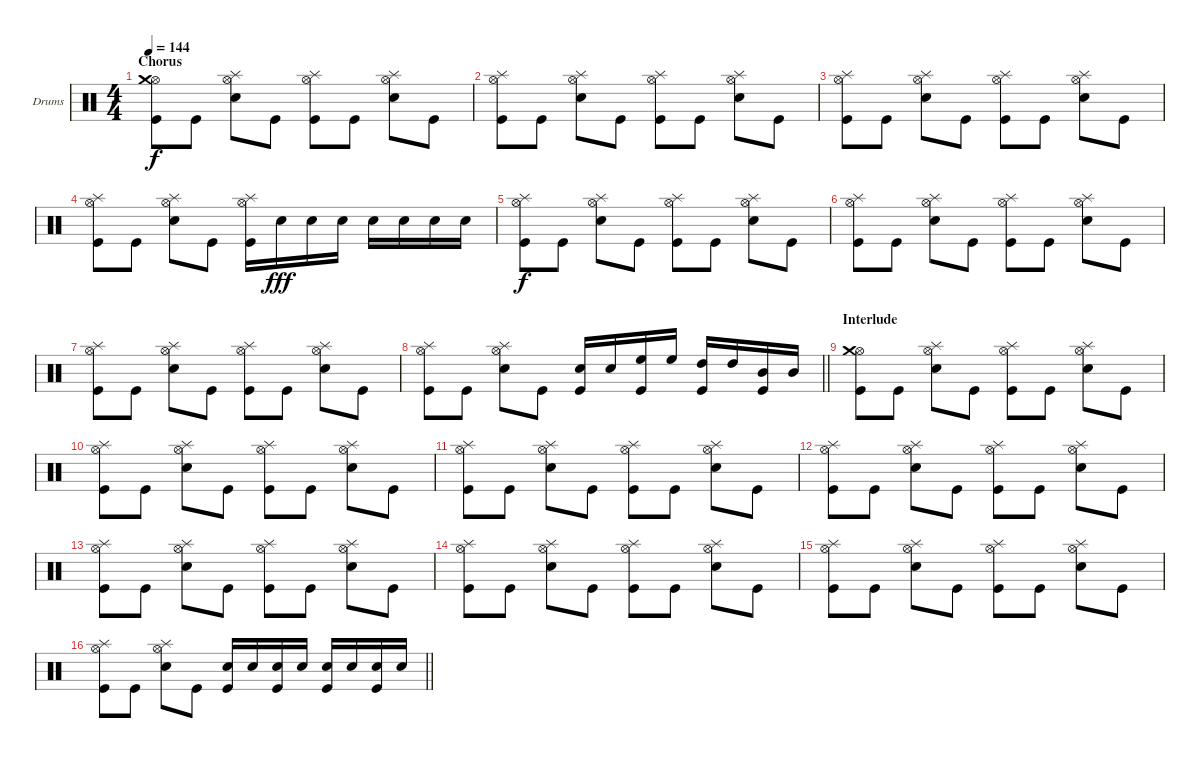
\bracketExtendMode groupsimilarinstruments
\firstSystemTrackNameOrientation horizontal
\otherSystemsTrackNameOrientation horizontal
\track ("Drumkit" "Drums") {instrument percussion}
\staff {score}
\articulation defaults
\ts (4 4)
\section ("" "Chorus")
\tempo 144
\clef neutral
\ks c
("Kick (hit)" "Hi-Hat (open)" "Crash medium (hit)").8{dy f} "Kick (hit)".8 ("Snare (hit) 2" "Hi-Hat (open)" "Splash (hit)").8 "Kick (hit)".8 ("Kick (hit)" "Hi-Hat (open)" "Splash (hit)").8 "Kick (hit)".8 ("Snare (hit) 2" "Hi-Hat (open)" "Splash (hit)").8 "Kick (hit)".8 |
("Kick (hit)" "Hi-Hat (open)" "Splash (hit)").8 "Kick (hit)".8 ("Snare (hit) 2" "Hi-Hat (open)" "Splash (hit)").8 "Kick (hit)".8 ("Kick (hit)" "Hi-Hat (open)" "Splash (hit)").8 "Kick (hit)".8 ("Snare (hit) 2" "Hi-Hat (open)" "Splash (hit)").8 "Kick (hit)".8 |
("Kick (hit)" "Hi-Hat (open)" "Splash (hit)").8 "Kick (hit)".8 ("Snare (hit) 2" "Hi-Hat (open)" "Splash (hit)").8 "Kick (hit)".8 ("Kick (hit)" "Hi-Hat (open)" "Splash (hit)").8 "Kick (hit)".8 ("Snare (hit) 2" "Hi-Hat (open)" "Splash (hit)").8 "Kick (hit)".8 |
("Kick (hit)" "Hi-Hat (open)" "Splash (hit)").8 "Kick (hit)".8 ("Snare (hit) 2" "Hi-Hat (open)" "Splash (hit)").8 "Kick (hit)".8 ("Kick (hit)" "Hi-Hat (open)" "Splash (hit)").16 "Snare (hit) 2".16{dy fff} "Snare (hit) 2".16 "Snare (hit) 2".16 "Snare (hit) 2".16 "Snare (hit) 2".16 "Snare (hit) 2".16 "Snare (hit) 2".16 |
("Kick (hit)" "Hi-Hat (open)" "Splash (hit)").8{dy f} "Kick (hit)".8 ("Snare (hit) 2" "Hi-Hat (open)" "Splash (hit)").8 "Kick (hit)".8 ("Kick (hit)" "Hi-Hat (open)" "Splash (hit)").8 "Kick (hit)".8 ("Snare (hit) 2" "Hi-Hat (open)" "Splash (hit)").8 "Kick (hit)".8 |
("Kick (hit)" "Hi-Hat (open)" "Splash (hit)").8 "Kick (hit)".8 ("Snare (hit) 2" "Hi-Hat (open)" "Splash (hit)").8 "Kick (hit)".8 ("Kick (hit)" "Hi-Hat (open)" "Splash (hit)").8 "Kick (hit)".8 ("Snare (hit) 2" "Hi-Hat (open)" "Splash (hit)").8 "Kick (hit)".8 |
("Kick (hit)" "Hi-Hat (open)" "Splash (hit)").8 "Kick (hit)".8 ("Snare (hit) 2" "Hi-Hat (open)" "Splash (hit)").8 "Kick (hit)".8 ("Kick (hit)" "Hi-Hat (open)" "Splash (hit)").8 "Kick (hit)".8 ("Snare (hit) 2" "Hi-Hat (open)" "Splash (hit)").8 "Kick (hit)".8 |
\barLineRight lightlight
("Kick (hit)" "Hi-Hat (open)" "Splash (hit)").8 "Kick (hit)".8 ("Snare (hit) 2" "Hi-Hat (open)" "Splash (hit)").8 "Kick (hit)".8 ("Snare (hit) 2" "Kick (hit)").16 "Snare (hit) 2".16 ("Kick (hit)" "High Floor Tom (hit)").16 "High Floor Tom (hit)".16 ("Kick (hit)" "High Tom (hit)").16 "High Tom (hit)".16 ("Kick (hit)" "Mid Tom (hit)").16 "Mid Tom (hit)".16 |
\section ("" "Interlude")
("Kick (hit)" "Hi-Hat (open)" "Crash medium (hit)").8 "Kick (hit)".8 ("Snare (hit) 2" "Hi-Hat (open)" "Splash (hit)").8 "Kick (hit)".8 ("Kick (hit)" "Hi-Hat (open)" "Splash (hit)").8 "Kick (hit)".8 ("Snare (hit) 2" "Hi-Hat (open)" "Splash (hit)").8 "Kick (hit)".8 |
("Kick (hit)" "Hi-Hat (open)" "Splash (hit)").8 "Kick (hit)".8 ("Snare (hit) 2" "Hi-Hat (open)" "Splash (hit)").8 "Kick (hit)".8 ("Kick (hit)" "Hi-Hat (open)" "Splash (hit)").8 "Kick (hit)".8 ("Snare (hit) 2" "Hi-Hat (open)" "Splash (hit)").8 "Kick (hit)".8 |
("Kick (hit)" "Hi-Hat (open)" "Splash (hit)").8 "Kick (hit)".8 ("Snare (hit) 2" "Hi-Hat (open)" "Splash (hit)").8 "Kick (hit)".8 ("Kick (hit)" "Hi-Hat (open)" "Splash (hit)").8 "Kick (hit)".8 ("Snare (hit) 2" "Hi-Hat (open)" "Splash (hit)").8 "Kick (hit)".8 |
("Kick (hit)" "Hi-Hat (open)" "Splash (hit)").8 "Kick (hit)".8 ("Snare (hit) 2" "Hi-Hat (open)" "Splash (hit)").8 "Kick (hit)".8 ("Kick (hit)" "Hi-Hat (open)" "Splash (hit)").8 "Kick (hit)".8 ("Snare (hit) 2" "Hi-Hat (open)" "Splash (hit)").8 "Kick (hit)".8 |
("Kick (hit)" "Hi-Hat (open)" "Splash (hit)").8 "Kick (hit)".8 ("Snare (hit) 2" "Hi-Hat (open)" "Splash (hit)").8 "Kick (hit)".8 ("Kick (hit)" "Hi-Hat (open)" "Splash (hit)").8 "Kick (hit)".8 ("Snare (hit) 2" "Hi-Hat (open)" "Splash (hit)").8 "Kick (hit)".8 |
("Kick (hit)" "Hi-Hat (open)" "Splash (hit)").8 "Kick (hit)".8 ("Snare (hit) 2" "Hi-Hat (open)" "Splash (hit)").8 "Kick (hit)".8 ("Kick (hit)" "Hi-Hat (open)" "Splash (hit)").8 "Kick (hit)".8 ("Snare (hit) 2" "Hi-Hat (open)" "Splash (hit)").8 "Kick (hit)".8 |
("Kick (hit)" "Hi-Hat (open)" "Splash (hit)").8 "Kick (hit)".8 ("Snare (hit) 2" "Hi-Hat (open)" "Splash (hit)").8 "Kick (hit)".8 ("Kick (hit)" "Hi-Hat (open)" "Splash (hit)").8 "Kick (hit)".8 ("Snare (hit) 2" "Hi-Hat (open)" "Splash (hit)").8 "Kick (hit)".8 |
\barLineRight lightlight
("Kick (hit)" "Hi-Hat (open)" "Splash (hit)").8 "Kick (hit)".8 ("Snare (hit) 2" "Hi-Hat (open)" "Splash (hit)").8 "Kick (hit)".8 ("Snare (hit) 2" "Kick (hit)").16 "Snare (hit) 2".16 ("Kick (hit)" "Snare (hit) 2").16 "Snare (hit) 2".16 ("Snare (hit) 2" "Kick (hit)").16 "Snare (hit) 2".16 ("Snare (hit) 2" "Kick (hit)").16 "Snare (hit) 2".16
